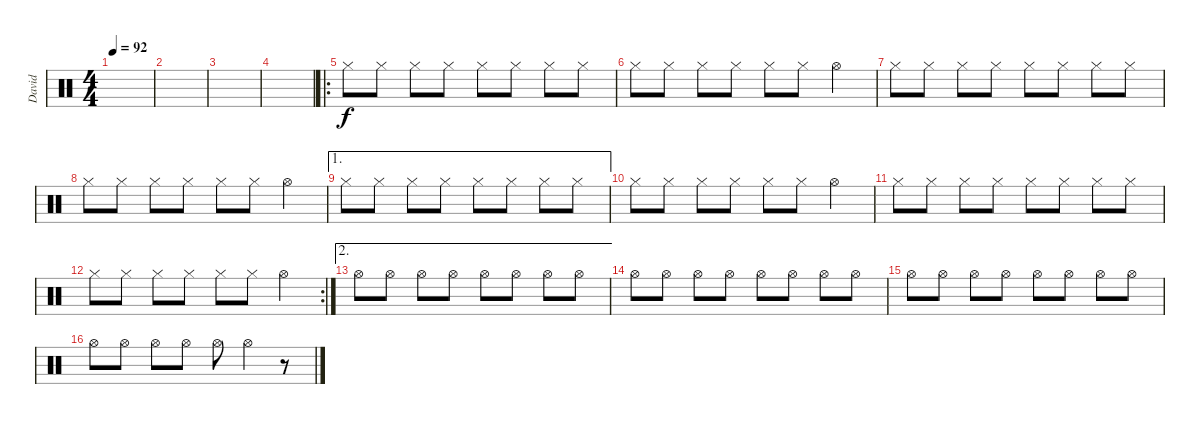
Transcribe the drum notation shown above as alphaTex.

\track ("David" "David") {instrument percussion}
\staff {score}
\articulation defaults
\ts (4 4)
\tempo 92
\clef neutral
\ks c
|
|
|
|
\ro "Hi-Hat (closed)".8 "Hi-Hat (closed)".8 "Hi-Hat (closed)".8 "Hi-Hat (closed)".8 "Hi-Hat (closed)".8 "Hi-Hat (closed)".8 "Hi-Hat (closed)".8 "Hi-Hat (closed)".8
|
"Hi-Hat (closed)".8 "Hi-Hat (closed)".8 "Hi-Hat (closed)".8 "Hi-Hat (closed)".8 "Hi-Hat (closed)".8 "Hi-Hat (closed)".8 "Hi-Hat (open)".4 |
"Hi-Hat (closed)".8 "Hi-Hat (closed)".8 "Hi-Hat (closed)".8 "Hi-Hat (closed)".8 "Hi-Hat (closed)".8 "Hi-Hat (closed)".8 "Hi-Hat (closed)".8 "Hi-Hat (closed)".8 |
"Hi-Hat (closed)".8 "Hi-Hat (closed)".8 "Hi-Hat (closed)".8 "Hi-Hat (closed)".8 "Hi-Hat (closed)".8 "Hi-Hat (closed)".8 "Hi-Hat (open)".4 |
\ae 1 "Hi-Hat (closed)".8 "Hi-Hat (closed)".8 "Hi-Hat (closed)".8 "Hi-Hat (closed)".8 "Hi-Hat (closed)".8 "Hi-Hat (closed)".8 "Hi-Hat (closed)".8 "Hi-Hat (closed)".8
|
"Hi-Hat (closed)".8 "Hi-Hat (closed)".8 "Hi-Hat (closed)".8 "Hi-Hat (closed)".8 "Hi-Hat (closed)".8 "Hi-Hat (closed)".8 "Hi-Hat (open)".4 |
"Hi-Hat (closed)".8 "Hi-Hat (closed)".8 "Hi-Hat (closed)".8 "Hi-Hat (closed)".8 "Hi-Hat (closed)".8 "Hi-Hat (closed)".8 "Hi-Hat (closed)".8 "Hi-Hat (closed)".8 |
\rc 2 "Hi-Hat (closed)".8 "Hi-Hat (closed)".8 "Hi-Hat (closed)".8 "Hi-Hat (closed)".8 "Hi-Hat (closed)".8 "Hi-Hat (closed)".8 "Hi-Hat (open)".4
|
\ae 2 "Hi-Hat (open)".8 "Hi-Hat (open)".8 "Hi-Hat (open)".8 "Hi-Hat (open)".8 "Hi-Hat (open)".8 "Hi-Hat (open)".8 "Hi-Hat (open)".8 "Hi-Hat (open)".8
|
"Hi-Hat (open)".8 "Hi-Hat (open)".8 "Hi-Hat (open)".8 "Hi-Hat (open)".8 "Hi-Hat (open)".8 "Hi-Hat (open)".8 "Hi-Hat (open)".8 "Hi-Hat (open)".8 |
"Hi-Hat (open)".8 "Hi-Hat (open)".8 "Hi-Hat (open)".8 "Hi-Hat (open)".8 "Hi-Hat (open)".8 "Hi-Hat (open)".8 "Hi-Hat (open)".8 "Hi-Hat (open)".8 |
"Hi-Hat (open)".8 "Hi-Hat (open)".8 "Hi-Hat (open)".8 "Hi-Hat (open)".8 "Hi-Hat (open)".8 "Hi-Hat (open)".4 r.8
